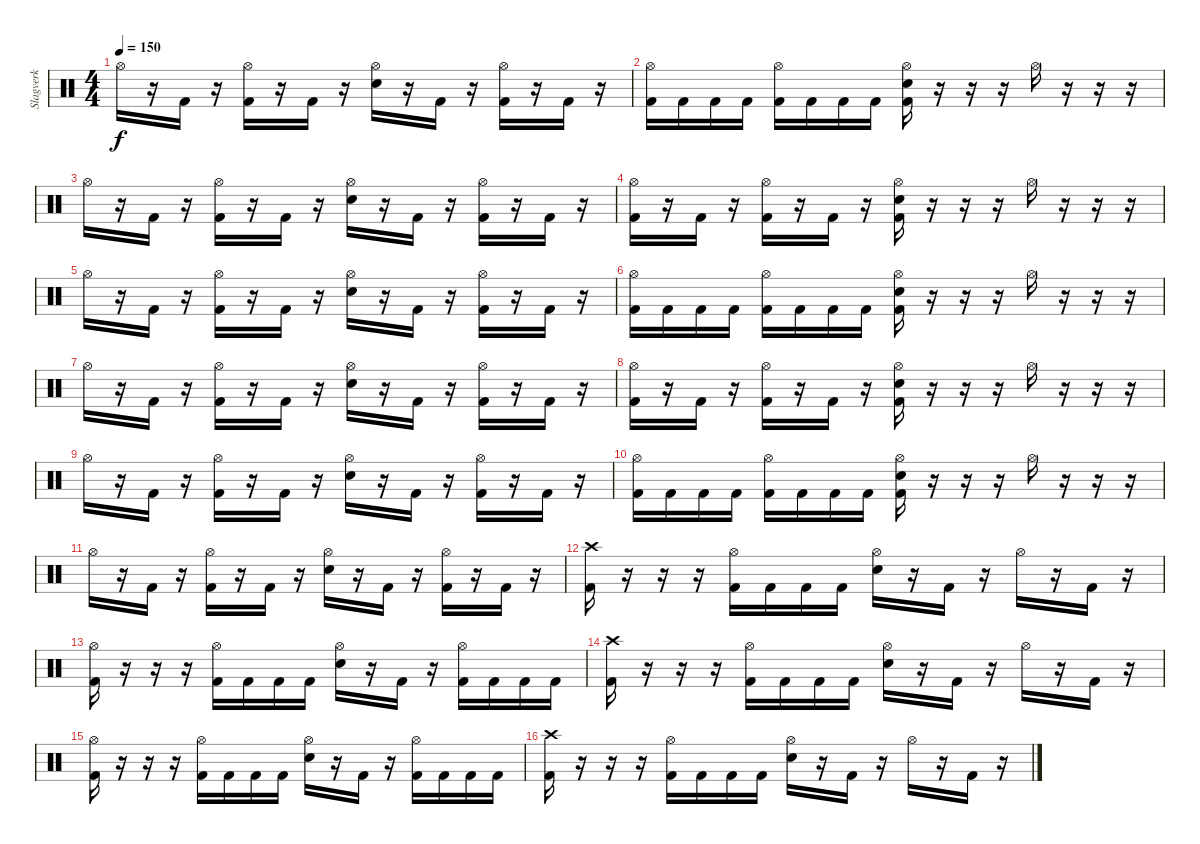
\track ("Slagverk" "Slagverk") {instrument percussion}
\staff {score}
\articulation defaults
\ts (4 4)
\tempo 150
\clef neutral
\ks c "Hi-Hat (open)".16{dy f}
r.16 "Kick (hit) 2".16 r.16 ("Hi-Hat (open)" "Kick (hit) 2").16 r.16 "Kick (hit) 2".16 r.16 ("Hi-Hat (open)" "Snare (hit) 2").16 r.16 "Kick (hit) 2".16 r.16 ("Hi-Hat (open)" "Kick (hit) 2").16 r.16 "Kick (hit) 2".16 r.16 |
("Hi-Hat (open)" "Kick (hit) 2").16 "Kick (hit) 2".16 "Kick (hit) 2".16 "Kick (hit) 2".16 ("Hi-Hat (open)" "Kick (hit) 2").16 "Kick (hit) 2".16 "Kick (hit) 2".16 "Kick (hit) 2".16 ("Hi-Hat (open)" "Snare (hit) 2" "Kick (hit) 2").16 r.16 r.16 r.16 "Hi-Hat (open)".16 r.16 r.16 r.16 |
"Hi-Hat (open)".16 r.16 "Kick (hit) 2".16 r.16 ("Hi-Hat (open)" "Kick (hit) 2").16 r.16 "Kick (hit) 2".16 r.16 ("Hi-Hat (open)" "Snare (hit) 2").16 r.16 "Kick (hit) 2".16 r.16 ("Hi-Hat (open)" "Kick (hit) 2").16 r.16 "Kick (hit) 2".16 r.16 |
("Hi-Hat (open)" "Kick (hit) 2").16 r.16 "Kick (hit) 2".16 r.16 ("Hi-Hat (open)" "Kick (hit) 2").16 r.16 "Kick (hit) 2".16 r.16 ("Hi-Hat (open)" "Snare (hit) 2" "Kick (hit) 2").16 r.16 r.16 r.16 "Hi-Hat (open)".16 r.16 r.16 r.16 |
"Hi-Hat (open)".16 r.16 "Kick (hit) 2".16 r.16 ("Hi-Hat (open)" "Kick (hit) 2").16 r.16 "Kick (hit) 2".16 r.16 ("Hi-Hat (open)" "Snare (hit) 2").16 r.16 "Kick (hit) 2".16 r.16 ("Hi-Hat (open)" "Kick (hit) 2").16 r.16 "Kick (hit) 2".16 r.16 |
("Hi-Hat (open)" "Kick (hit) 2").16 "Kick (hit) 2".16 "Kick (hit) 2".16 "Kick (hit) 2".16 ("Hi-Hat (open)" "Kick (hit) 2").16 "Kick (hit) 2".16 "Kick (hit) 2".16 "Kick (hit) 2".16 ("Hi-Hat (open)" "Snare (hit) 2" "Kick (hit) 2").16 r.16 r.16 r.16 "Hi-Hat (open)".16 r.16 r.16 r.16 |
"Hi-Hat (open)".16 r.16 "Kick (hit) 2".16 r.16 ("Hi-Hat (open)" "Kick (hit) 2").16 r.16 "Kick (hit) 2".16 r.16 ("Hi-Hat (open)" "Snare (hit) 2").16 r.16 "Kick (hit) 2".16 r.16 ("Hi-Hat (open)" "Kick (hit) 2").16 r.16 "Kick (hit) 2".16 r.16 |
("Hi-Hat (open)" "Kick (hit) 2").16 r.16 "Kick (hit) 2".16 r.16 ("Hi-Hat (open)" "Kick (hit) 2").16 r.16 "Kick (hit) 2".16 r.16 ("Hi-Hat (open)" "Snare (hit) 2" "Kick (hit) 2").16 r.16 r.16 r.16 "Hi-Hat (open)".16 r.16 r.16 r.16 |
"Hi-Hat (open)".16 r.16 "Kick (hit) 2".16 r.16 ("Hi-Hat (open)" "Kick (hit) 2").16 r.16 "Kick (hit) 2".16 r.16 ("Hi-Hat (open)" "Snare (hit) 2").16 r.16 "Kick (hit) 2".16 r.16 ("Hi-Hat (open)" "Kick (hit) 2").16 r.16 "Kick (hit) 2".16 r.16 |
("Hi-Hat (open)" "Kick (hit) 2").16 "Kick (hit) 2".16 "Kick (hit) 2".16 "Kick (hit) 2".16 ("Hi-Hat (open)" "Kick (hit) 2").16 "Kick (hit) 2".16 "Kick (hit) 2".16 "Kick (hit) 2".16 ("Hi-Hat (open)" "Snare (hit) 2" "Kick (hit) 2").16 r.16 r.16 r.16 "Hi-Hat (open)".16 r.16 r.16 r.16 |
"Hi-Hat (open)".16 r.16 "Kick (hit) 2".16 r.16 ("Hi-Hat (open)" "Kick (hit) 2").16 r.16 "Kick (hit) 2".16 r.16 ("Hi-Hat (open)" "Snare (hit) 2").16 r.16 "Kick (hit) 2".16 r.16 ("Hi-Hat (open)" "Kick (hit) 2").16 r.16 "Kick (hit) 2".16 r.16 |
("Kick (hit) 2" "Crash high (hit)").16 r.16 r.16 r.16 ("Kick (hit) 2" "Hi-Hat (open)").16 "Kick (hit) 2".16 "Kick (hit) 2".16 "Kick (hit) 2".16 ("Snare (hit) 2" "Hi-Hat (open)").16 r.16 "Kick (hit) 2".16 r.16 "Hi-Hat (open)".16 r.16 "Kick (hit) 2".16 r.16 |
("Kick (hit) 2" "Hi-Hat (open)").16 r.16 r.16 r.16 ("Kick (hit) 2" "Hi-Hat (open)").16 "Kick (hit) 2".16 "Kick (hit) 2".16 "Kick (hit) 2".16 ("Snare (hit) 2" "Hi-Hat (open)").16 r.16 "Kick (hit) 2".16 r.16 ("Kick (hit) 2" "Hi-Hat (open)").16 "Kick (hit) 2".16 "Kick (hit) 2".16 "Kick (hit) 2".16 |
("Kick (hit) 2" "Crash high (hit)").16 r.16 r.16 r.16 ("Kick (hit) 2" "Hi-Hat (open)").16 "Kick (hit) 2".16 "Kick (hit) 2".16 "Kick (hit) 2".16 ("Snare (hit) 2" "Hi-Hat (open)").16 r.16 "Kick (hit) 2".16 r.16 "Hi-Hat (open)".16 r.16 "Kick (hit) 2".16 r.16 |
("Kick (hit) 2" "Hi-Hat (open)").16 r.16 r.16 r.16 ("Kick (hit) 2" "Hi-Hat (open)").16 "Kick (hit) 2".16 "Kick (hit) 2".16 "Kick (hit) 2".16 ("Snare (hit) 2" "Hi-Hat (open)").16 r.16 "Kick (hit) 2".16 r.16 ("Kick (hit) 2" "Hi-Hat (open)").16 "Kick (hit) 2".16 "Kick (hit) 2".16 "Kick (hit) 2".16 |
("Kick (hit) 2" "Crash high (hit)").16 r.16 r.16 r.16 ("Kick (hit) 2" "Hi-Hat (open)").16 "Kick (hit) 2".16 "Kick (hit) 2".16 "Kick (hit) 2".16 ("Snare (hit) 2" "Hi-Hat (open)").16 r.16 "Kick (hit) 2".16 r.16 "Hi-Hat (open)".16 r.16 "Kick (hit) 2".16 r.16
